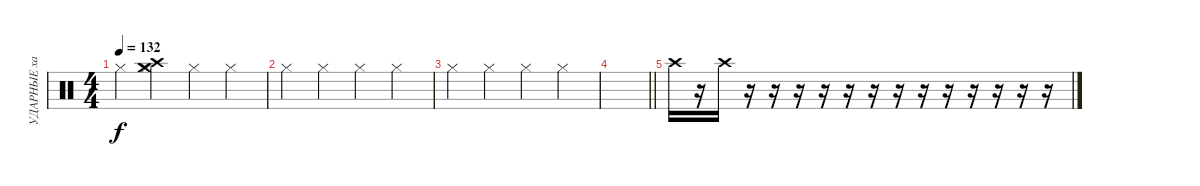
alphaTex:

\track ("УДАРНЫЕ хай хэт" "УДАРНЫЕ ха") {instrument percussion}
\staff {score}
\articulation defaults
\ts (4 4)
\tempo 132
\clef neutral
\ks c "Hi-Hat (closed)".4{dy f}
("Hi-Hat (closed)" "Crash high (hit)" "Crash medium (hit)").4 "Hi-Hat (closed)".4 "Hi-Hat (closed)".4 |
"Hi-Hat (closed)".4 "Hi-Hat (closed)".4 "Hi-Hat (closed)".4 "Hi-Hat (closed)".4 |
"Hi-Hat (closed)".4 "Hi-Hat (closed)".4 "Hi-Hat (closed)".4 "Hi-Hat (closed)".4 |
\barLineRight lightlight
|
"Crash high (hit)".16 r.16 "Crash high (hit)".16 r.16 r.16 r.16 r.16 r.16 r.16 r.16 r.16 r.16 r.16 r.16 r.16 r.16
